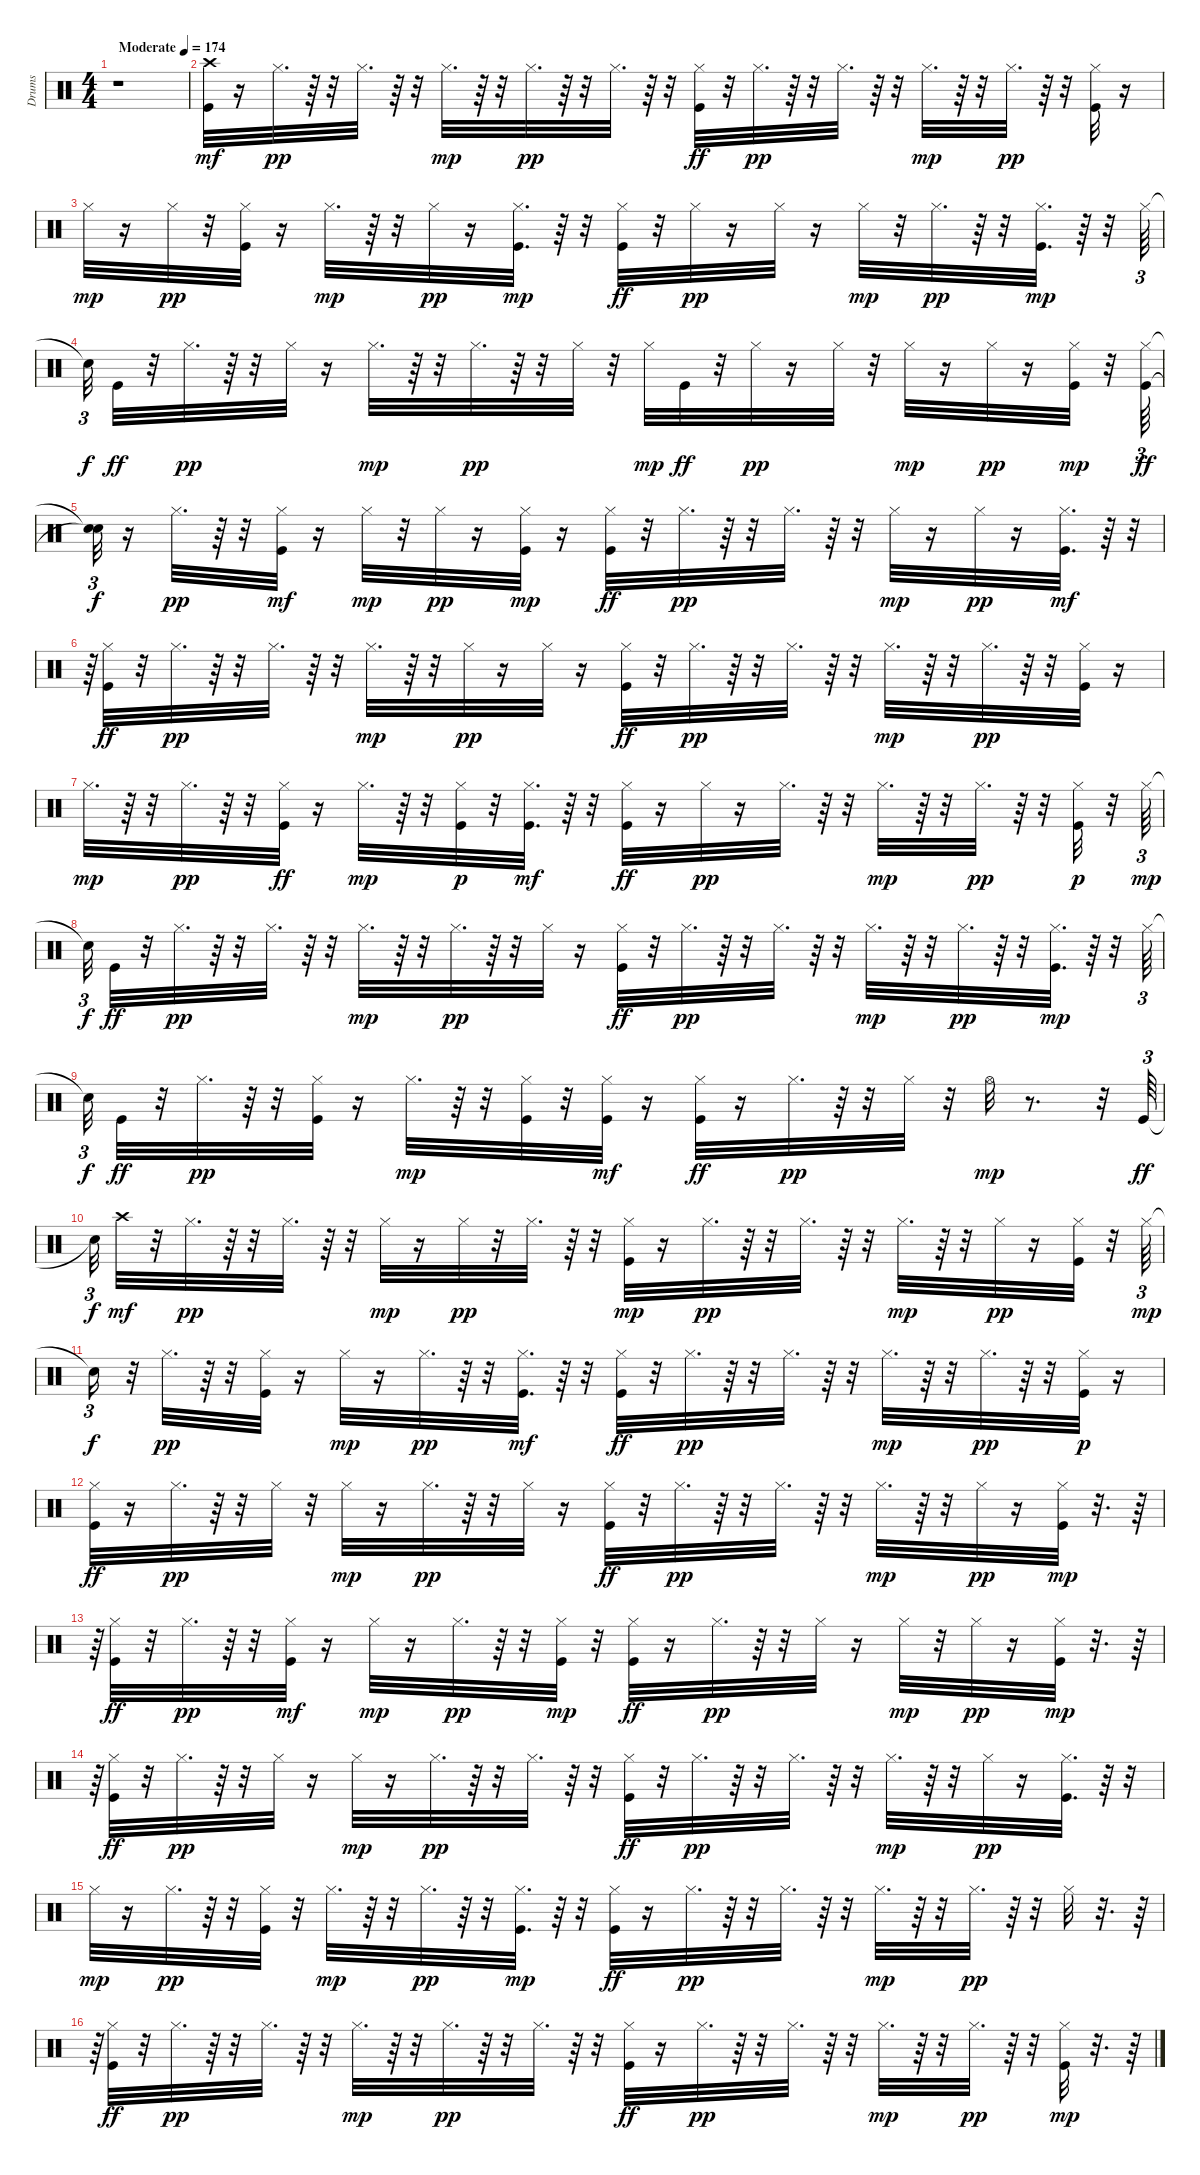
\track ("Drums" "Drums") {instrument percussion}
\staff {score}
\articulation defaults
\ts (4 4)
\tempo (174 "Moderate")
\clef neutral
\ks c
r.1{dy mf} |
("Kick (hit)" "Crash high (hit)").32 r.16 "Hi-Hat (closed)".32{d dy pp} r.64 r.32 "Hi-Hat (closed)".32{d} r.64 r.32 "Hi-Hat (closed)".32{d dy mp} r.64 r.32 "Hi-Hat (closed)".32{d dy pp} r.64 r.32 "Hi-Hat (closed)".32{d} r.64 r.32 ("Hi-Hat (closed)" "Kick (hit)").32{dy ff} r.32 "Hi-Hat (closed)".32{d dy pp} r.64 r.32 "Hi-Hat (closed)".32{d} r.64 r.32 "Hi-Hat (closed)".32{d dy mp} r.64 r.32 "Hi-Hat (closed)".32{d dy pp} r.64 r.32 ("Hi-Hat (closed)" "Kick (hit)").32 r.16 |
"Hi-Hat (closed)".32{dy mp} r.16 "Hi-Hat (closed)".32{dy pp} r.32 ("Hi-Hat (closed)" "Kick (hit)").32 r.16 "Hi-Hat (closed)".32{d dy mp} r.64 r.32 "Hi-Hat (closed)".32{dy pp} r.16 ("Hi-Hat (closed)" "Kick (hit)").32{d dy mp} r.64 r.32 ("Hi-Hat (closed)" "Kick (hit)").32{dy ff} r.32 "Hi-Hat (closed)".32{dy pp} r.16 "Hi-Hat (closed)".32 r.16 "Hi-Hat (closed)".32{dy mp} r.32 "Hi-Hat (closed)".32{d dy pp} r.64 r.32 ("Hi-Hat (closed)" "Kick (hit)").32{d dy mp} r.64 r.32 "Hi-Hat (closed)".64{tu (3 2)} |
"Snare (hit)"{t}.32{tu (3 2) dy f} "Kick (hit)".32{dy ff} r.32 "Hi-Hat (closed)".32{d dy pp} r.64 r.32 "Hi-Hat (closed)".32 r.16 "Hi-Hat (closed)".32{d dy mp} r.64 r.32 "Hi-Hat (closed)".32{d dy pp} r.64 r.32 "Hi-Hat (closed)".32 r.32 "Hi-Hat (closed)".32{dy mp} "Kick (hit)".32{dy ff} r.32 "Hi-Hat (closed)".32{dy pp} r.16 "Hi-Hat (closed)".32 r.32 "Hi-Hat (closed)".32{dy mp} r.16 "Hi-Hat (closed)".32{dy pp} r.16 ("Hi-Hat (closed)" "Kick (hit)").32{dy mp} r.32 ("Hi-Hat (closed)" "Kick (hit)").64{tu (3 2) dy ff} |
("Snare (hit)"{t} "Snare (hit)"{t}).32{tu (3 2) dy f} r.16 "Hi-Hat (closed)".32{d dy pp} r.64 r.32 ("Hi-Hat (closed)" "Kick (hit)").32{dy mf} r.16 "Hi-Hat (closed)".32{dy mp} r.32 "Hi-Hat (closed)".32{dy pp} r.16 ("Hi-Hat (closed)" "Kick (hit)").32{dy mp} r.16 ("Hi-Hat (closed)" "Kick (hit)").32{dy ff} r.32 "Hi-Hat (closed)".32{d dy pp} r.64 r.32 "Hi-Hat (closed)".32{d} r.64 r.32 "Hi-Hat (closed)".32{dy mp} r.16 "Hi-Hat (closed)".32{dy pp} r.16 ("Hi-Hat (closed)" "Kick (hit)").32{d dy mf} r.64 r.32{tu (3 2)} |
r.64{tu (3 2)} ("Hi-Hat (closed)" "Kick (hit)").32{dy ff} r.32 "Hi-Hat (closed)".32{d dy pp} r.64 r.32 "Hi-Hat (closed)".32{d} r.64 r.32 "Hi-Hat (closed)".32{d dy mp} r.64 r.32 "Hi-Hat (closed)".32{dy pp} r.16 "Hi-Hat (closed)".32 r.16 ("Hi-Hat (closed)" "Kick (hit)").32{dy ff} r.32 "Hi-Hat (closed)".32{d dy pp} r.64 r.32 "Hi-Hat (closed)".32{d} r.64 r.32 "Hi-Hat (closed)".32{d dy mp} r.64 r.32 "Hi-Hat (closed)".32{d dy pp} r.64 r.32 ("Hi-Hat (closed)" "Kick (hit)").32 r.16 |
"Hi-Hat (closed)".32{d dy mp} r.64 r.32 "Hi-Hat (closed)".32{d dy pp} r.64 r.32 ("Hi-Hat (closed)" "Kick (hit)").32{dy ff} r.16 "Hi-Hat (closed)".32{d dy mp} r.64 r.32 ("Hi-Hat (closed)" "Kick (hit)").32{dy p} r.32 ("Hi-Hat (closed)" "Kick (hit)").32{d dy mf} r.64 r.32 ("Hi-Hat (closed)" "Kick (hit)").32{dy ff} r.16 "Hi-Hat (closed)".32{dy pp} r.16 "Hi-Hat (closed)".32{d} r.64 r.32 "Hi-Hat (closed)".32{d dy mp} r.64 r.32 "Hi-Hat (closed)".32{d dy pp} r.64 r.32 ("Hi-Hat (closed)" "Kick (hit)").32{dy p} r.32 "Hi-Hat (closed)".64{tu (3 2) dy mp} |
"Snare (hit)"{t}.32{tu (3 2) dy f} "Kick (hit)".32{dy ff} r.32 "Hi-Hat (closed)".32{d dy pp} r.64 r.32 "Hi-Hat (closed)".32{d} r.64 r.32 "Hi-Hat (closed)".32{d dy mp} r.64 r.32 "Hi-Hat (closed)".32{d dy pp} r.64 r.32 "Hi-Hat (closed)".32 r.16 ("Hi-Hat (closed)" "Kick (hit)").32{dy ff} r.32 "Hi-Hat (closed)".32{d dy pp} r.64 r.32 "Hi-Hat (closed)".32{d} r.64 r.32 "Hi-Hat (closed)".32{d dy mp} r.64 r.32 "Hi-Hat (closed)".32{d dy pp} r.64 r.32 ("Hi-Hat (closed)" "Kick (hit)").32{d dy mp} r.64 r.32 "Hi-Hat (closed)".64{tu (3 2)} |
"Snare (hit)"{t}.32{tu (3 2) dy f} "Kick (hit)".32{dy ff} r.32 "Hi-Hat (closed)".32{d dy pp} r.64 r.32 ("Hi-Hat (closed)" "Kick (hit)").32 r.16 "Hi-Hat (closed)".32{d dy mp} r.64 r.32 ("Hi-Hat (closed)" "Kick (hit)").32 r.32 ("Hi-Hat (closed)" "Kick (hit)").32{dy mf} r.16 ("Hi-Hat (closed)" "Kick (hit)").32{dy ff} r.16 "Hi-Hat (closed)".32{d dy pp} r.64 r.32 "Hi-Hat (closed)".32 r.32 "Hi-Hat (open)".32{dy mp} r.8{d} r.32 "Kick (hit)".64{tu (3 2) dy ff} |
"Snare (hit)"{t}.32{tu (3 2) dy f} "Crash high (hit)".32{dy mf} r.32 "Hi-Hat (closed)".32{d dy pp} r.64 r.32 "Hi-Hat (closed)".32{d} r.64 r.32 "Hi-Hat (closed)".32{dy mp} r.16 "Hi-Hat (closed)".32{dy pp} r.32 "Hi-Hat (closed)".32{d} r.64 r.32 ("Hi-Hat (closed)" "Kick (hit)").32{dy mp} r.16 "Hi-Hat (closed)".32{d dy pp} r.64 r.32 "Hi-Hat (closed)".32{d} r.64 r.32 "Hi-Hat (closed)".32{d dy mp} r.64 r.32 "Hi-Hat (closed)".32{dy pp} r.16 ("Hi-Hat (closed)" "Kick (hit)").32 r.32 "Hi-Hat (closed)".64{tu (3 2) dy mp} |
"Snare (hit)"{t}.16{tu (3 2) dy f} r.32 "Hi-Hat (closed)".32{d dy pp} r.64 r.32 ("Hi-Hat (closed)" "Kick (hit)").32 r.16 "Hi-Hat (closed)".32{dy mp} r.16 "Hi-Hat (closed)".32{d dy pp} r.64 r.32 ("Hi-Hat (closed)" "Kick (hit)").32{d dy mf} r.64 r.32 ("Hi-Hat (closed)" "Kick (hit)").32{dy ff} r.32 "Hi-Hat (closed)".32{d dy pp} r.64 r.32 "Hi-Hat (closed)".32{d} r.64 r.32 "Hi-Hat (closed)".32{d dy mp} r.64 r.32 "Hi-Hat (closed)".32{d dy pp} r.64 r.32 ("Hi-Hat (closed)" "Kick (hit)").32{dy p} r.16 |
("Hi-Hat (closed)" "Kick (hit)").32{dy ff} r.16 "Hi-Hat (closed)".32{d dy pp} r.64 r.32 "Hi-Hat (closed)".32 r.32 "Hi-Hat (closed)".32{dy mp} r.16 "Hi-Hat (closed)".32{d dy pp} r.64 r.32 "Hi-Hat (closed)".32 r.16 ("Hi-Hat (closed)" "Kick (hit)").32{dy ff} r.32 "Hi-Hat (closed)".32{d dy pp} r.64 r.32 "Hi-Hat (closed)".32{d} r.64 r.32 "Hi-Hat (closed)".32{d dy mp} r.64 r.32 "Hi-Hat (closed)".32{dy pp} r.16 ("Hi-Hat (closed)" "Kick (hit)").32{dy mp} r.32{d} r.64 |
r.64{tu (3 2)} ("Hi-Hat (closed)" "Kick (hit)").32{dy ff} r.32 "Hi-Hat (closed)".32{d dy pp} r.64 r.32 ("Hi-Hat (closed)" "Kick (hit)").32{dy mf} r.16 "Hi-Hat (closed)".32{dy mp} r.16 "Hi-Hat (closed)".32{d dy pp} r.64 r.32 ("Hi-Hat (closed)" "Kick (hit)").32{dy mp} r.32 ("Hi-Hat (closed)" "Kick (hit)").32{dy ff} r.16 "Hi-Hat (closed)".32{d dy pp} r.64 r.32 "Hi-Hat (closed)".32 r.16 "Hi-Hat (closed)".32{dy mp} r.32 "Hi-Hat (closed)".32{dy pp} r.16 ("Hi-Hat (closed)" "Kick (hit)").32{dy mp} r.32{d} r.64 |
r.64{tu (3 2)} ("Hi-Hat (closed)" "Kick (hit)").32{dy ff} r.32 "Hi-Hat (closed)".32{d dy pp} r.64 r.32 "Hi-Hat (closed)".32 r.16 "Hi-Hat (closed)".32{dy mp} r.16 "Hi-Hat (closed)".32{d dy pp} r.64 r.32 "Hi-Hat (closed)".32{d} r.64 r.32 ("Hi-Hat (closed)" "Kick (hit)").32{dy ff} r.32 "Hi-Hat (closed)".32{d dy pp} r.64 r.32 "Hi-Hat (closed)".32{d} r.64 r.32 "Hi-Hat (closed)".32{d dy mp} r.64 r.32 "Hi-Hat (closed)".32{dy pp} r.16 ("Hi-Hat (closed)" "Kick (hit)").32{d} r.64 r.32 |
"Hi-Hat (closed)".32{dy mp} r.16 "Hi-Hat (closed)".32{d dy pp} r.64 r.32 ("Hi-Hat (closed)" "Kick (hit)").32 r.32 "Hi-Hat (closed)".32{d dy mp} r.64 r.32 "Hi-Hat (closed)".32{d dy pp} r.64 r.32 ("Hi-Hat (closed)" "Kick (hit)").32{d dy mp} r.64 r.32 ("Hi-Hat (closed)" "Kick (hit)").32{dy ff} r.16 "Hi-Hat (closed)".32{d dy pp} r.64 r.32 "Hi-Hat (closed)".32{d} r.64 r.32 "Hi-Hat (closed)".32{d dy mp} r.64 r.32 "Hi-Hat (closed)".32{d dy pp} r.64 r.32 "Hi-Hat (closed)".32 r.32{d} r.64 |
r.64{tu (3 2)} ("Hi-Hat (closed)" "Kick (hit)").32{dy ff} r.32 "Hi-Hat (closed)".32{d dy pp} r.64 r.32 "Hi-Hat (closed)".32{d} r.64 r.32 "Hi-Hat (closed)".32{d dy mp} r.64 r.32 "Hi-Hat (closed)".32{d dy pp} r.64 r.32 "Hi-Hat (closed)".32{d} r.64 r.32 ("Hi-Hat (closed)" "Kick (hit)").32{dy ff} r.16 "Hi-Hat (closed)".32{d dy pp} r.64 r.32 "Hi-Hat (closed)".32{d} r.64 r.32 "Hi-Hat (closed)".32{d dy mp} r.64 r.32 "Hi-Hat (closed)".32{d dy pp} r.64 r.32 ("Hi-Hat (closed)" "Kick (hit)").32{dy mp} r.32{d} r.64
